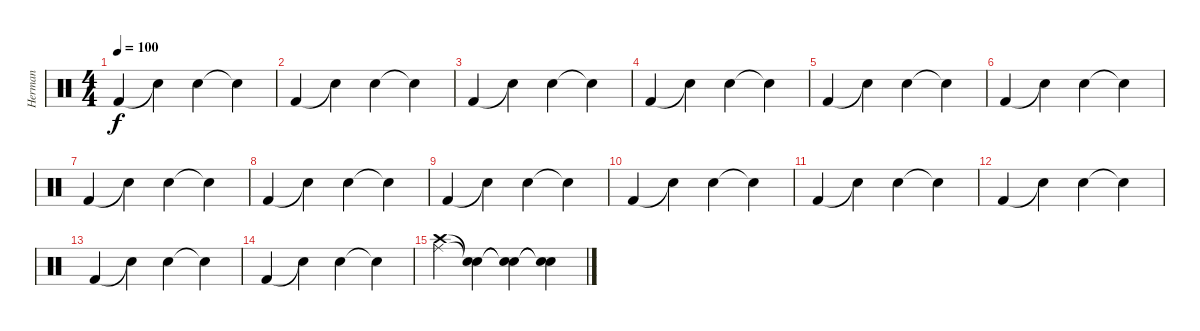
\track ("Herman" "Herman") {instrument percussion}
\staff {score}
\articulation defaults
\ts (4 4)
\tempo 100
\clef neutral
\ks c "Kick (hit) 2".4{dy f} "Snare (hit)"{t}.4 "Snare (hit) 2".4 "Snare (hit)"{t}.4
|
"Kick (hit) 2".4 "Snare (hit)"{t}.4 "Snare (hit) 2".4 "Snare (hit)"{t}.4 |
"Kick (hit) 2".4 "Snare (hit)"{t}.4 "Snare (hit) 2".4 "Snare (hit)"{t}.4 |
"Kick (hit) 2".4 "Snare (hit)"{t}.4 "Snare (hit) 2".4 "Snare (hit)"{t}.4 |
"Kick (hit) 2".4 "Snare (hit)"{t}.4 "Snare (hit) 2".4 "Snare (hit)"{t}.4 |
"Kick (hit) 2".4 "Snare (hit)"{t}.4 "Snare (hit) 2".4 "Snare (hit)"{t}.4 |
"Kick (hit) 2".4 "Snare (hit)"{t}.4 "Snare (hit) 2".4 "Snare (hit)"{t}.4 |
"Kick (hit) 2".4 "Snare (hit)"{t}.4 "Snare (hit) 2".4 "Snare (hit)"{t}.4 |
"Kick (hit) 2".4 "Snare (hit)"{t}.4 "Snare (hit) 2".4 "Snare (hit)"{t}.4 |
"Kick (hit) 2".4 "Snare (hit)"{t}.4 "Snare (hit) 2".4 "Snare (hit)"{t}.4 |
"Kick (hit) 2".4 "Snare (hit)"{t}.4 "Snare (hit) 2".4 "Snare (hit)"{t}.4 |
"Kick (hit) 2".4 "Snare (hit)"{t}.4 "Snare (hit) 2".4 "Snare (hit)"{t}.4 |
"Kick (hit) 2".4 "Snare (hit)"{t}.4 "Snare (hit) 2".4 "Snare (hit)"{t}.4 |
"Kick (hit) 2".4 "Snare (hit)"{t}.4 "Snare (hit) 2".4 "Snare (hit)"{t}.4 |
("Ride (middle)" "Crash high (hit)").4 ("Snare (hit)"{t} "Snare (hit)"{t}).4 ("Snare (hit)"{t} "Snare (hit)"{t}).4 ("Snare (hit)"{t} "Snare (hit)"{t}).4
